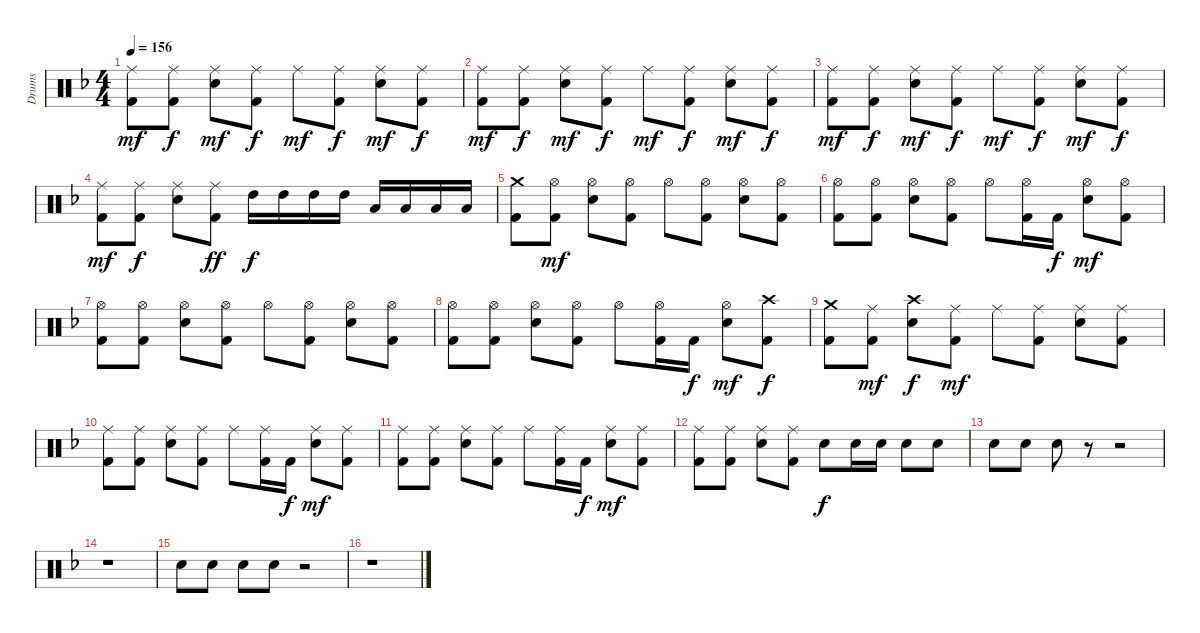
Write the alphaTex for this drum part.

\track ("Drums" "Drums") {instrument percussion}
\staff {score}
\articulation defaults
\ts (4 4)
\tempo 156
\clef neutral
\ks dminor
("Ride (middle)" "Kick (hit) 2").8{dy mf} ("Ride (middle)" "Kick (hit) 2").8{dy f} ("Ride (middle)" "Snare (hit) 2").8{dy mf} ("Ride (middle)" "Kick (hit) 2").8{dy f} "Ride (middle)".8{dy mf} ("Ride (middle)" "Kick (hit) 2").8{dy f} ("Ride (middle)" "Snare (hit) 2").8{dy mf} ("Ride (middle)" "Kick (hit) 2").8{dy f} |
("Ride (middle)" "Kick (hit) 2").8{dy mf} ("Ride (middle)" "Kick (hit) 2").8{dy f} ("Ride (middle)" "Snare (hit) 2").8{dy mf} ("Ride (middle)" "Kick (hit) 2").8{dy f} "Ride (middle)".8{dy mf} ("Ride (middle)" "Kick (hit) 2").8{dy f} ("Ride (middle)" "Snare (hit) 2").8{dy mf} ("Ride (middle)" "Kick (hit) 2").8{dy f} |
("Ride (middle)" "Kick (hit) 2").8{dy mf} ("Ride (middle)" "Kick (hit) 2").8{dy f} ("Ride (middle)" "Snare (hit) 2").8{dy mf} ("Ride (middle)" "Kick (hit) 2").8{dy f} "Ride (middle)".8{dy mf} ("Ride (middle)" "Kick (hit) 2").8{dy f} ("Ride (middle)" "Snare (hit) 2").8{dy mf} ("Ride (middle)" "Kick (hit) 2").8{dy f} |
("Ride (middle)" "Kick (hit) 2").8{dy mf} ("Ride (middle)" "Kick (hit) 2").8{dy f} ("Ride (middle)" "Snare (hit) 2").8 ("Ride (middle)" "Kick (hit) 2").8{dy ff} "High Tom (hit)".16{dy f} "High Tom (hit)".16 "High Tom (hit)".16 "High Tom (hit)".16 "Low Tom (hit)".16 "Low Tom (hit)".16 "Low Tom (hit)".16 "Low Tom (hit)".16 |
("Crash medium (hit)" "Kick (hit) 2").8 ("Hi-Hat (open)" "Kick (hit) 2").8{dy mf} ("Hi-Hat (open)" "Snare (hit) 2").8 ("Hi-Hat (open)" "Kick (hit) 2").8 "Hi-Hat (open)".8 ("Hi-Hat (open)" "Kick (hit) 2").8 ("Hi-Hat (open)" "Snare (hit) 2").8 ("Hi-Hat (open)" "Kick (hit) 2").8 |
("Hi-Hat (open)" "Kick (hit) 2").8 ("Hi-Hat (open)" "Kick (hit) 2").8 ("Hi-Hat (open)" "Snare (hit) 2").8 ("Hi-Hat (open)" "Kick (hit) 2").8 "Hi-Hat (open)".8 ("Hi-Hat (open)" "Kick (hit) 2").16 "Kick (hit) 2".16{dy f} ("Hi-Hat (open)" "Snare (hit) 2").8{dy mf} ("Hi-Hat (open)" "Kick (hit) 2").8 |
("Hi-Hat (open)" "Kick (hit) 2").8 ("Hi-Hat (open)" "Kick (hit) 2").8 ("Hi-Hat (open)" "Snare (hit) 2").8 ("Hi-Hat (open)" "Kick (hit) 2").8 "Hi-Hat (open)".8 ("Hi-Hat (open)" "Kick (hit) 2").8 ("Hi-Hat (open)" "Snare (hit) 2").8 ("Hi-Hat (open)" "Kick (hit) 2").8 |
("Hi-Hat (open)" "Kick (hit) 2").8 ("Hi-Hat (open)" "Kick (hit) 2").8 ("Hi-Hat (open)" "Snare (hit) 2").8 ("Hi-Hat (open)" "Kick (hit) 2").8 "Hi-Hat (open)".8 ("Hi-Hat (open)" "Kick (hit) 2").16 "Kick (hit) 2".16{dy f} ("Hi-Hat (open)" "Snare (hit) 2").8{dy mf} ("Crash high (hit)" "Kick (hit) 2").8{dy f} |
("Crash medium (hit)" "Kick (hit) 2").8 ("Ride (middle)" "Kick (hit) 2").8{dy mf} ("Crash high (hit)" "Snare (hit) 2").8{dy f} ("Ride (middle)" "Kick (hit) 2").8{dy mf} "Ride (middle)".8 ("Ride (middle)" "Kick (hit) 2").8 ("Ride (middle)" "Snare (hit) 2").8 ("Ride (middle)" "Kick (hit) 2").8 |
("Ride (middle)" "Kick (hit) 2").8 ("Ride (middle)" "Kick (hit) 2").8 ("Ride (middle)" "Snare (hit) 2").8 ("Ride (middle)" "Kick (hit) 2").8 "Ride (middle)".8 ("Ride (middle)" "Kick (hit) 2").16 "Kick (hit) 2".16{dy f} ("Ride (middle)" "Snare (hit) 2").8{dy mf} ("Ride (middle)" "Kick (hit) 2").8 |
("Ride (middle)" "Kick (hit) 2").8 ("Ride (middle)" "Kick (hit) 2").8 ("Ride (middle)" "Snare (hit) 2").8 ("Ride (middle)" "Kick (hit) 2").8 "Ride (middle)".8 ("Ride (middle)" "Kick (hit) 2").16 "Kick (hit) 2".16{dy f} ("Ride (middle)" "Snare (hit) 2").8{dy mf} ("Ride (middle)" "Kick (hit) 2").8 |
("Ride (middle)" "Kick (hit) 2").8 ("Ride (middle)" "Kick (hit) 2").8 ("Ride (middle)" "Snare (hit) 2").8 ("Ride (middle)" "Kick (hit) 2").8 "Snare (hit) 2".8{dy f} "Snare (hit) 2".16 "Snare (hit) 2".16 "Snare (hit) 2".8 "Snare (hit) 2".8 |
"Snare (hit) 2".8 "Snare (hit) 2".8 "Snare (hit) 2".8 r.8 r.2 |
r.1 |
"Snare (hit) 2".8 "Snare (hit) 2".8 "Snare (hit) 2".8 "Snare (hit) 2".8 r.2 |
r.1
